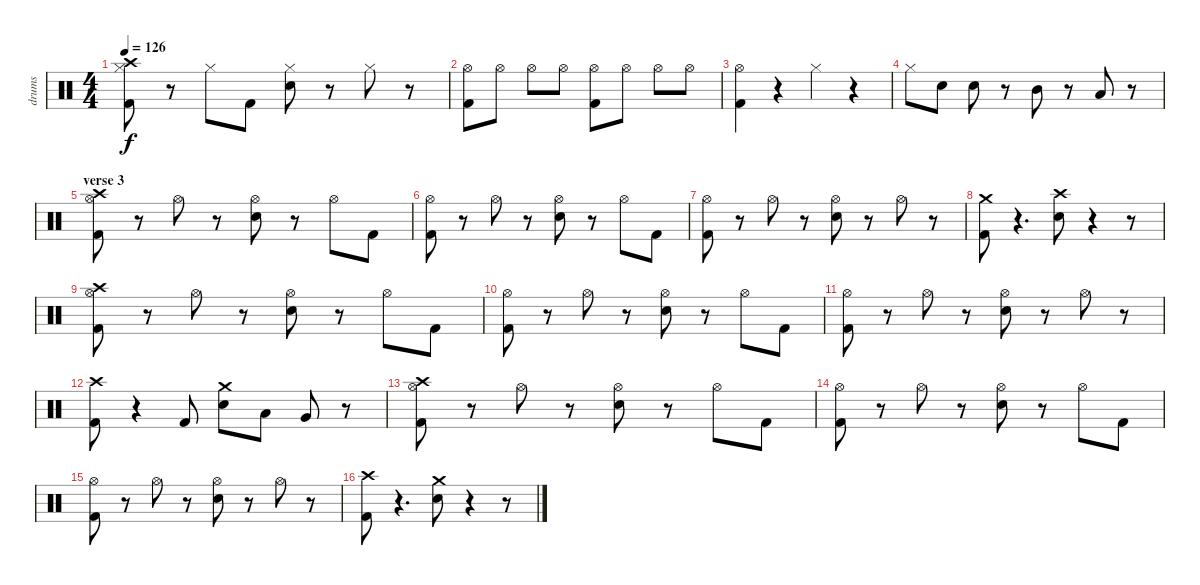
\track ("drums" "drums") {instrument percussion}
\staff {score}
\articulation defaults
\ts (4 4)
\tempo 126
\clef neutral
\ks c
("Kick (hit) 2" "Hi-Hat (closed)" "Crash high (hit)").8{dy f} r.8 "Hi-Hat (closed)".8 "Kick (hit) 2".8 ("Electric Snare (hit)" "Hi-Hat (closed)").8 r.8 "Hi-Hat (closed)".8 r.8 |
("Kick (hit) 2" "Hi-Hat (open)").8 "Hi-Hat (open)".8 "Hi-Hat (open)".8 "Hi-Hat (open)".8 ("Kick (hit) 2" "Hi-Hat (open)").8 "Hi-Hat (open)".8 "Hi-Hat (open)".8 "Hi-Hat (open)".8 |
("Kick (hit) 2" "Hi-Hat (open)").4 r.4 "Hi-Hat (closed)".4 r.4 |
"Hi-Hat (closed)".8 "Electric Snare (hit)".8 "Electric Snare (hit)".8 r.8 "Mid Tom (hit)".8 r.8 "Low Tom (hit)".8 r.8 |
\section ("" "verse 3")
("Kick (hit) 2" "Hi-Hat (open)" "Crash high (hit)").8 r.8 "Hi-Hat (open)".8 r.8 ("Electric Snare (hit)" "Hi-Hat (open)").8 r.8 "Hi-Hat (open)".8 "Kick (hit) 2".8 |
("Kick (hit) 2" "Hi-Hat (open)").8 r.8 "Hi-Hat (open)".8 r.8 ("Electric Snare (hit)" "Hi-Hat (open)").8 r.8 "Hi-Hat (open)".8 "Kick (hit) 2".8 |
("Kick (hit) 2" "Hi-Hat (open)").8 r.8 "Hi-Hat (open)".8 r.8 ("Electric Snare (hit)" "Hi-Hat (open)").8 r.8 "Hi-Hat (open)".8 r.8 |
("Kick (hit) 2" "Crash medium (hit)").8 r.4{d} ("Electric Snare (hit)" "Crash high (hit)").8 r.4 r.8 |
("Kick (hit) 2" "Hi-Hat (open)" "Crash high (hit)").8 r.8 "Hi-Hat (open)".8 r.8 ("Electric Snare (hit)" "Hi-Hat (open)").8 r.8 "Hi-Hat (open)".8 "Kick (hit) 2".8 |
("Kick (hit) 2" "Hi-Hat (open)").8 r.8 "Hi-Hat (open)".8 r.8 ("Electric Snare (hit)" "Hi-Hat (open)").8 r.8 "Hi-Hat (open)".8 "Kick (hit) 2".8 |
("Kick (hit) 2" "Hi-Hat (open)").8 r.8 "Hi-Hat (open)".8 r.8 ("Electric Snare (hit)" "Hi-Hat (open)").8 r.8 "Hi-Hat (open)".8 r.8 |
("Kick (hit) 2" "Crash high (hit)").8 r.4 "Kick (hit) 2".8 ("Electric Snare (hit)" "Crash medium (hit)").8 "Low Tom (hit)".8 "Very Low Tom (hit)".8 r.8 |
("Kick (hit) 2" "Hi-Hat (open)" "Crash high (hit)").8 r.8 "Hi-Hat (open)".8 r.8 ("Electric Snare (hit)" "Hi-Hat (open)").8 r.8 "Hi-Hat (open)".8 "Kick (hit) 2".8 |
("Kick (hit) 2" "Hi-Hat (open)").8 r.8 "Hi-Hat (open)".8 r.8 ("Electric Snare (hit)" "Hi-Hat (open)").8 r.8 "Hi-Hat (open)".8 "Kick (hit) 2".8 |
("Kick (hit) 2" "Hi-Hat (open)").8 r.8 "Hi-Hat (open)".8 r.8 ("Electric Snare (hit)" "Hi-Hat (open)").8 r.8 "Hi-Hat (open)".8 r.8 |
("Kick (hit) 2" "Crash high (hit)").8 r.4{d} ("Electric Snare (hit)" "Crash medium (hit)").8 r.4 r.8
